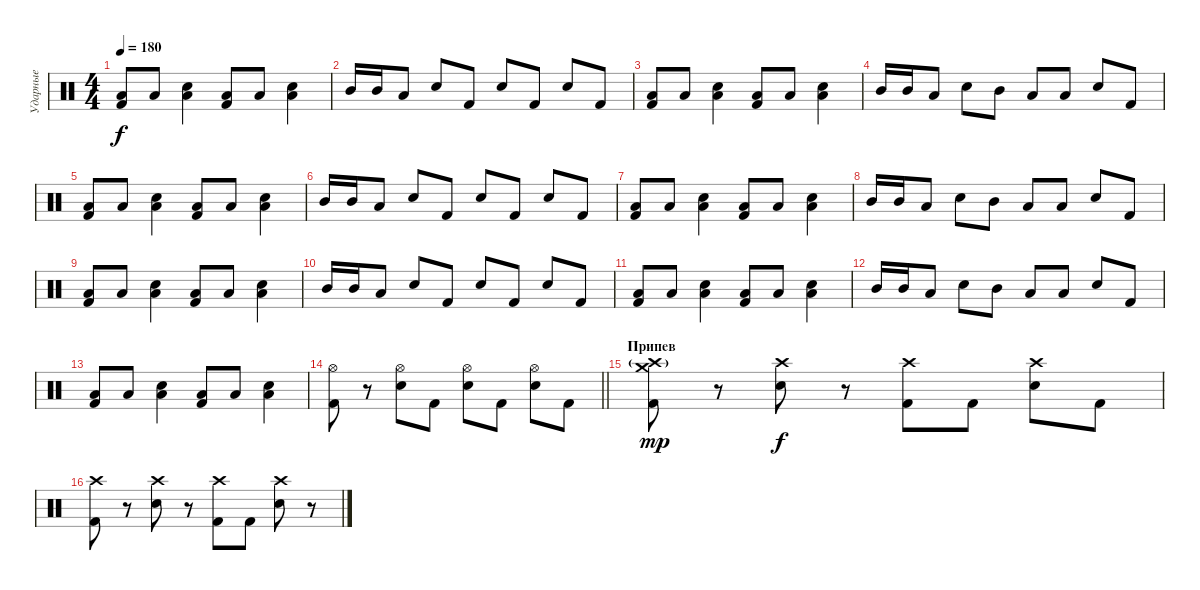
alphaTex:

\track ("Ударные" "Ударные") {instrument percussion}
\staff {score}
\articulation defaults
\ts (4 4)
\tempo 180
\clef neutral
\ks c
("Low Floor Tom (hit)" "Kick (hit) 2").8{dy f} "Low Tom (hit)".8 ("Low Floor Tom (hit)" "Snare (hit) 2").4 ("Low Floor Tom (hit)" "Kick (hit) 2").8 "Low Tom (hit)".8 ("Low Floor Tom (hit)" "Snare (hit) 2").4 |
"Mid Tom (hit)".16 "Mid Tom (hit)".16 "Low Tom (hit)".8 "Snare (hit) 2".8 "Kick (hit) 2".8 "Snare (hit) 2".8 "Kick (hit) 2".8 "Snare (hit) 2".8 "Kick (hit) 2".8 |
("Low Floor Tom (hit)" "Kick (hit) 2").8 "Low Tom (hit)".8 ("Low Floor Tom (hit)" "Snare (hit) 2").4 ("Low Floor Tom (hit)" "Kick (hit) 2").8 "Low Tom (hit)".8 ("Low Floor Tom (hit)" "Snare (hit) 2").4 |
"Mid Tom (hit)".16 "Mid Tom (hit)".16 "Low Tom (hit)".8 "Snare (hit) 2".8 "Mid Tom (hit)".8 "Low Tom (hit)".8 "Low Tom (hit)".8 "Snare (hit) 2".8 "Kick (hit) 2".8 |
("Low Floor Tom (hit)" "Kick (hit) 2").8 "Low Tom (hit)".8 ("Low Floor Tom (hit)" "Snare (hit) 2").4 ("Low Floor Tom (hit)" "Kick (hit) 2").8 "Low Tom (hit)".8 ("Low Floor Tom (hit)" "Snare (hit) 2").4 |
"Mid Tom (hit)".16 "Mid Tom (hit)".16 "Low Tom (hit)".8 "Snare (hit) 2".8 "Kick (hit) 2".8 "Snare (hit) 2".8 "Kick (hit) 2".8 "Snare (hit) 2".8 "Kick (hit) 2".8 |
("Low Floor Tom (hit)" "Kick (hit) 2").8 "Low Tom (hit)".8 ("Low Floor Tom (hit)" "Snare (hit) 2").4 ("Low Floor Tom (hit)" "Kick (hit) 2").8 "Low Tom (hit)".8 ("Low Floor Tom (hit)" "Snare (hit) 2").4 |
"Mid Tom (hit)".16 "Mid Tom (hit)".16 "Low Tom (hit)".8 "Snare (hit) 2".8 "Mid Tom (hit)".8 "Low Tom (hit)".8 "Low Tom (hit)".8 "Snare (hit) 2".8 "Kick (hit) 2".8 |
("Low Floor Tom (hit)" "Kick (hit) 2").8 "Low Tom (hit)".8 ("Low Floor Tom (hit)" "Snare (hit) 2").4 ("Low Floor Tom (hit)" "Kick (hit) 2").8 "Low Tom (hit)".8 ("Low Floor Tom (hit)" "Snare (hit) 2").4 |
"Mid Tom (hit)".16 "Mid Tom (hit)".16 "Low Tom (hit)".8 "Snare (hit) 2".8 "Kick (hit) 2".8 "Snare (hit) 2".8 "Kick (hit) 2".8 "Snare (hit) 2".8 "Kick (hit) 2".8 |
("Low Floor Tom (hit)" "Kick (hit) 2").8 "Low Tom (hit)".8 ("Low Floor Tom (hit)" "Snare (hit) 2").4 ("Low Floor Tom (hit)" "Kick (hit) 2").8 "Low Tom (hit)".8 ("Low Floor Tom (hit)" "Snare (hit) 2").4 |
"Mid Tom (hit)".16 "Mid Tom (hit)".16 "Low Tom (hit)".8 "Snare (hit) 2".8 "Mid Tom (hit)".8 "Low Tom (hit)".8 "Low Tom (hit)".8 "Snare (hit) 2".8 "Kick (hit) 2".8 |
("Low Floor Tom (hit)" "Kick (hit) 2").8 "Low Tom (hit)".8 ("Low Floor Tom (hit)" "Snare (hit) 2").4 ("Low Floor Tom (hit)" "Kick (hit) 2").8 "Low Tom (hit)".8 ("Low Floor Tom (hit)" "Snare (hit) 2").4 |
\barLineRight lightlight
("Hi-Hat (open)" "Kick (hit) 2").8 r.8 ("Hi-Hat (open)" "Snare (hit) 2").8 "Kick (hit) 2".8 ("Hi-Hat (open)" "Snare (hit) 2").8 "Kick (hit) 2".8 ("Hi-Hat (open)" "Snare (hit) 2").8 "Kick (hit) 2".8 |
\section ("" "Припев")
("Crash medium (hit)" "Crash high (hit)"{g} "Kick (hit) 2").8{dy mp} r.8 ("Crash high (hit)" "Snare (hit) 2").8{dy f} r.8 ("Crash high (hit)" "Kick (hit) 2").8 "Kick (hit) 2".8 ("Crash high (hit)" "Snare (hit) 2").8 "Kick (hit) 2".8 |
("Crash high (hit)" "Kick (hit) 2").8 r.8 ("Crash high (hit)" "Snare (hit) 2").8 r.8 ("Crash high (hit)" "Kick (hit) 2").8 "Kick (hit) 2".8 ("Crash high (hit)" "Snare (hit) 2").8 r.8
